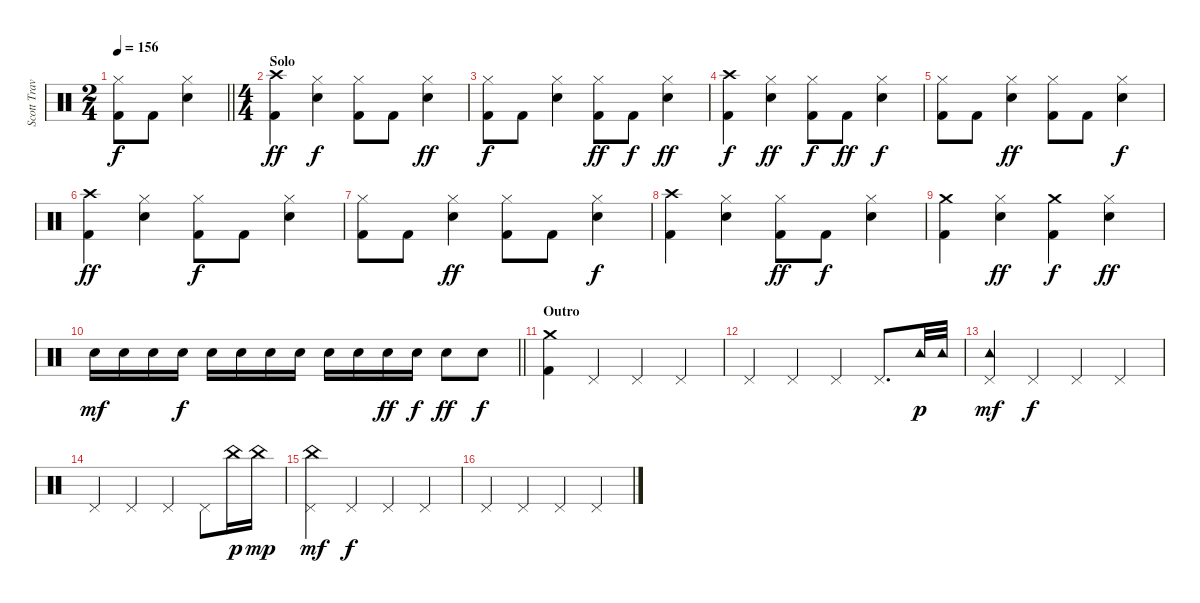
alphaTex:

\track ("Scott Travis" "Scott Trav") {instrument percussion}
\staff {score}
\articulation defaults
\ts (2 4)
\tempo 156
\clef neutral
\barLineRight lightlight
\ks c
("Hi-Hat (closed)" "Kick (hit) 2").8{dy f} "Kick (hit) 2".8 ("Hi-Hat (closed)" "Snare (hit) 2").4 |
\ts (4 4)
\section ("" "Solo")
("Crash high (hit)" "Kick (hit) 2").4{dy ff} ("Snare (hit) 2" "Hi-Hat (closed)").4{dy f} ("Kick (hit) 2" "Hi-Hat (closed)").8 "Kick (hit) 2".8 ("Hi-Hat (closed)" "Snare (hit) 2").4{dy ff} |
("Kick (hit) 2" "Hi-Hat (closed)").8{dy f} "Kick (hit) 2".8 ("Snare (hit) 2" "Hi-Hat (closed)").4 ("Hi-Hat (closed)" "Kick (hit) 2").8{dy ff} "Kick (hit) 2".8{dy f} ("Snare (hit) 2" "Hi-Hat (closed)").4{dy ff} |
("Kick (hit) 2" "Crash high (hit)").4{dy f} ("Hi-Hat (closed)" "Snare (hit) 2").4{dy ff} ("Hi-Hat (closed)" "Kick (hit) 2").8{dy f} "Kick (hit) 2".8{dy ff} ("Snare (hit) 2" "Hi-Hat (closed)").4{dy f} |
("Kick (hit) 2" "Hi-Hat (closed)").8 "Kick (hit) 2".8 ("Hi-Hat (closed)" "Snare (hit) 2").4{dy ff} ("Kick (hit) 2" "Hi-Hat (closed)").8 "Kick (hit) 2".8 ("Snare (hit) 2" "Hi-Hat (closed)").4{dy f} |
("Crash high (hit)" "Kick (hit) 2").4{dy ff} ("Snare (hit) 2" "Hi-Hat (closed)").4 ("Kick (hit) 2" "Hi-Hat (closed)").8{dy f} "Kick (hit) 2".8 ("Hi-Hat (closed)" "Snare (hit) 2").4 |
("Kick (hit) 2" "Hi-Hat (closed)").8 "Kick (hit) 2".8 ("Hi-Hat (closed)" "Snare (hit) 2").4{dy ff} ("Hi-Hat (closed)" "Kick (hit) 2").8 "Kick (hit) 2".8 ("Hi-Hat (closed)" "Snare (hit) 2").4{dy f} |
("Kick (hit) 2" "Crash high (hit)").4 ("Hi-Hat (closed)" "Snare (hit) 2").4 ("Hi-Hat (closed)" "Kick (hit) 2").8{dy ff} "Kick (hit) 2".8{dy f} ("Snare (hit) 2" "Hi-Hat (closed)").4 |
("Kick (hit) 2" "Crash medium (hit)").4 ("Snare (hit) 2" "Hi-Hat (closed)").4{dy ff} ("Crash medium (hit)" "Kick (hit) 2").4{dy f} ("Snare (hit) 2" "Hi-Hat (closed)").4{dy ff} |
\barLineRight lightlight "Snare (hit) 2".16{dy mf} "Snare (hit) 2".16 "Snare (hit) 2".16 "Snare (hit) 2".16{dy f} "Snare (hit) 2".16 "Snare (hit) 2".16 "Snare (hit) 2".16 "Snare (hit) 2".16 "Snare (hit) 2".16 "Snare (hit) 2".16 "Snare (hit) 2".16{dy ff} "Snare (hit) 2".16{dy f} "Snare (hit) 2".8{dy ff} "Snare (hit) 2".8{dy f}
|
\section ("" "Outro")
("Crash medium (hit)" "Kick (hit) 2").4 "Pedal Hi-Hat (hit)".4 "Pedal Hi-Hat (hit)".4 "Pedal Hi-Hat (hit)".4 |
"Pedal Hi-Hat (hit)".4 "Pedal Hi-Hat (hit)".4 "Pedal Hi-Hat (hit)".4 "Pedal Hi-Hat (hit)".8{d} "Tambourine (hit)".32{dy p} "Tambourine (hit)".32 |
("Tambourine (hit)" "Pedal Hi-Hat (hit)").4{dy mf} "Pedal Hi-Hat (hit)".4{dy f} "Pedal Hi-Hat (hit)".4 "Pedal Hi-Hat (hit)".4 |
"Pedal Hi-Hat (hit)".4 "Pedal Hi-Hat (hit)".4 "Pedal Hi-Hat (hit)".4 "Pedal Hi-Hat (hit)".8 "China (hit)".16{dy p} "China (hit)".16{dy mp} |
("Pedal Hi-Hat (hit)" "China (hit)").4{dy mf} "Pedal Hi-Hat (hit)".4{dy f} "Pedal Hi-Hat (hit)".4 "Pedal Hi-Hat (hit)".4 |
"Pedal Hi-Hat (hit)".4 "Pedal Hi-Hat (hit)".4 "Pedal Hi-Hat (hit)".4 "Pedal Hi-Hat (hit)".4
